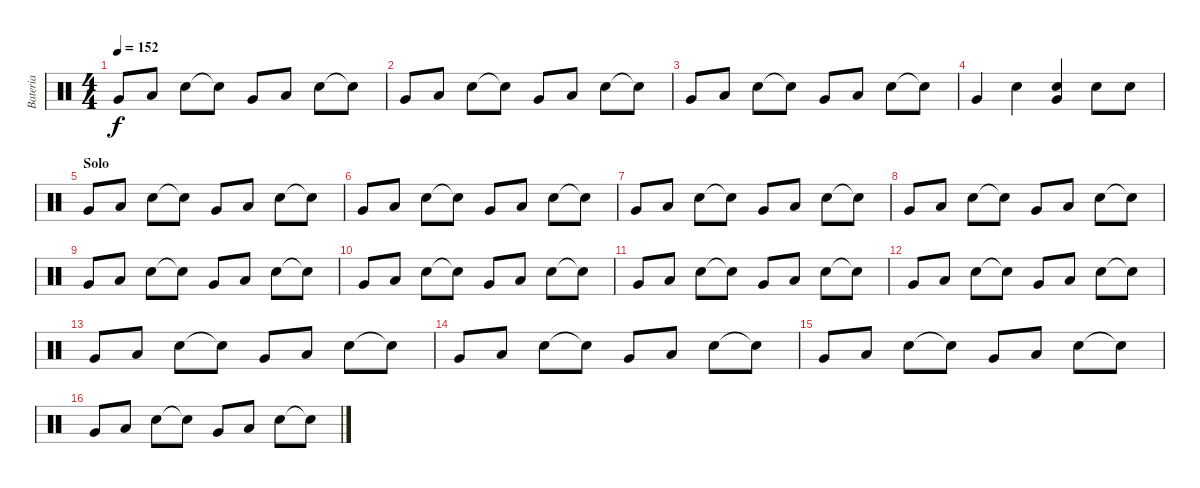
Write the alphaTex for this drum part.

\track ("Bateria" "Bateria") {instrument percussion}
\staff {score}
\articulation defaults
\ts (4 4)
\tempo 152
\clef neutral
\ks c "Very Low Tom (hit)".8{dy f} "Low Floor Tom (hit)".8 "Snare (hit) 2".8 "Snare (hit)"{t}.8 "Very Low Tom (hit)".8 "Low Floor Tom (hit)".8 "Snare (hit) 2".8 "Snare (hit)"{t}.8
|
"Very Low Tom (hit)".8 "Low Floor Tom (hit)".8 "Snare (hit) 2".8 "Snare (hit)"{t}.8 "Very Low Tom (hit)".8 "Low Floor Tom (hit)".8 "Snare (hit) 2".8 "Snare (hit)"{t}.8 |
"Very Low Tom (hit)".8 "Low Floor Tom (hit)".8 "Snare (hit) 2".8 "Snare (hit)"{t}.8 "Very Low Tom (hit)".8 "Low Floor Tom (hit)".8 "Snare (hit) 2".8 "Snare (hit)"{t}.8 |
"Very Low Tom (hit)".4 "Snare (hit) 2".4 ("Very Low Tom (hit)" "Snare (hit) 2").4 "Snare (hit) 2".8 "Snare (hit) 2".8 |
\section ("" "Solo")
"Very Low Tom (hit)".8 "Low Floor Tom (hit)".8 "Snare (hit) 2".8 "Snare (hit)"{t}.8 "Very Low Tom (hit)".8 "Low Floor Tom (hit)".8 "Snare (hit) 2".8 "Snare (hit)"{t}.8 |
"Very Low Tom (hit)".8 "Low Floor Tom (hit)".8 "Snare (hit) 2".8 "Snare (hit)"{t}.8 "Very Low Tom (hit)".8 "Low Floor Tom (hit)".8 "Snare (hit) 2".8 "Snare (hit)"{t}.8 |
"Very Low Tom (hit)".8 "Low Floor Tom (hit)".8 "Snare (hit) 2".8 "Snare (hit)"{t}.8 "Very Low Tom (hit)".8 "Low Floor Tom (hit)".8 "Snare (hit) 2".8 "Snare (hit)"{t}.8 |
"Very Low Tom (hit)".8 "Low Floor Tom (hit)".8 "Snare (hit) 2".8 "Snare (hit)"{t}.8 "Very Low Tom (hit)".8 "Low Floor Tom (hit)".8 "Snare (hit) 2".8 "Snare (hit)"{t}.8 |
"Very Low Tom (hit)".8 "Low Floor Tom (hit)".8 "Snare (hit) 2".8 "Snare (hit)"{t}.8 "Very Low Tom (hit)".8 "Low Floor Tom (hit)".8 "Snare (hit) 2".8 "Snare (hit)"{t}.8 |
"Very Low Tom (hit)".8 "Low Floor Tom (hit)".8 "Snare (hit) 2".8 "Snare (hit)"{t}.8 "Very Low Tom (hit)".8 "Low Floor Tom (hit)".8 "Snare (hit) 2".8 "Snare (hit)"{t}.8 |
"Very Low Tom (hit)".8 "Low Floor Tom (hit)".8 "Snare (hit) 2".8 "Snare (hit)"{t}.8 "Very Low Tom (hit)".8 "Low Floor Tom (hit)".8 "Snare (hit) 2".8 "Snare (hit)"{t}.8 |
"Very Low Tom (hit)".8 "Low Floor Tom (hit)".8 "Snare (hit) 2".8 "Snare (hit)"{t}.8 "Very Low Tom (hit)".8 "Low Floor Tom (hit)".8 "Snare (hit) 2".8 "Snare (hit)"{t}.8 |
"Very Low Tom (hit)".8 "Low Floor Tom (hit)".8 "Snare (hit) 2".8 "Snare (hit)"{t}.8 "Very Low Tom (hit)".8 "Low Floor Tom (hit)".8 "Snare (hit) 2".8 "Snare (hit)"{t}.8 |
"Very Low Tom (hit)".8 "Low Floor Tom (hit)".8 "Snare (hit) 2".8 "Snare (hit)"{t}.8 "Very Low Tom (hit)".8 "Low Floor Tom (hit)".8 "Snare (hit) 2".8 "Snare (hit)"{t}.8 |
"Very Low Tom (hit)".8 "Low Floor Tom (hit)".8 "Snare (hit) 2".8 "Snare (hit)"{t}.8 "Very Low Tom (hit)".8 "Low Floor Tom (hit)".8 "Snare (hit) 2".8 "Snare (hit)"{t}.8 |
"Very Low Tom (hit)".8 "Low Floor Tom (hit)".8 "Snare (hit) 2".8 "Snare (hit)"{t}.8 "Very Low Tom (hit)".8 "Low Floor Tom (hit)".8 "Snare (hit) 2".8 "Snare (hit)"{t}.8
